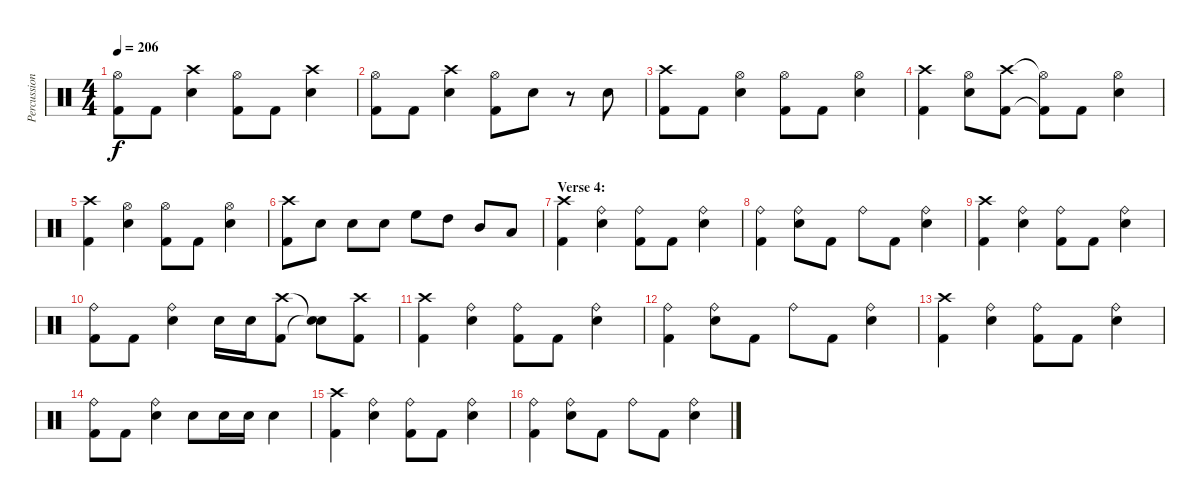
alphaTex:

\track ("Percussion" "Percussion") {instrument percussion}
\staff {score}
\articulation defaults
\ts (4 4)
\tempo 206
\clef neutral
\ks c
("Hi-Hat (open)" "Kick (hit) 2").8{dy f} "Kick (hit) 2".8 ("Crash high (hit)" "Snare (hit) 2").4 ("Hi-Hat (open)" "Kick (hit) 2").8 "Kick (hit) 2".8 ("Crash high (hit)" "Snare (hit) 2").4 |
("Hi-Hat (open)" "Kick (hit) 2").8 "Kick (hit) 2".8 ("Crash high (hit)" "Snare (hit) 2").4 ("Hi-Hat (open)" "Kick (hit) 2").8 "Snare (hit) 2".8 r.8 "Snare (hit) 2".8 |
("Crash high (hit)" "Kick (hit) 2").8 "Kick (hit) 2".8 ("Hi-Hat (open)" "Snare (hit) 2").4 ("Hi-Hat (open)" "Kick (hit) 2").8 "Kick (hit) 2".8 ("Hi-Hat (open)" "Snare (hit) 2").4 |
("Crash high (hit)" "Kick (hit) 2").4 ("Hi-Hat (open)" "Snare (hit) 2").8 ("Crash high (hit)" "Kick (hit) 2").8 ("Hi-Hat (open)"{t} "Kick (hit) 2"{t}).8 "Kick (hit) 2".8 ("Hi-Hat (open)" "Snare (hit) 2").4 |
("Crash high (hit)" "Kick (hit) 2").4 ("Hi-Hat (open)" "Snare (hit) 2").4 ("Hi-Hat (open)" "Kick (hit) 2").8 "Kick (hit) 2".8 ("Hi-Hat (open)" "Snare (hit) 2").4 |
("Crash high (hit)" "Kick (hit) 2").8 "Snare (hit) 2".8 "Snare (hit) 2".8 "Snare (hit) 2".8 "High Floor Tom (hit)".8 "High Tom (hit)".8 "Mid Tom (hit)".8 "Low Tom (hit)".8 |
\section ("" "Verse 4:")
("Crash high (hit)" "Kick (hit) 2").4 ("Ride (bell)" "Snare (hit) 2").4 ("Ride (bell)" "Kick (hit) 2").8 "Kick (hit) 2".8 ("Ride (bell)" "Snare (hit) 2").4 |
("Ride (bell)" "Kick (hit) 2").4 ("Ride (bell)" "Snare (hit) 2").8 "Kick (hit) 2".8 "Ride (bell)".8 "Kick (hit) 2".8 ("Ride (bell)" "Snare (hit) 2").4 |
("Crash high (hit)" "Kick (hit) 2").4 ("Ride (bell)" "Snare (hit) 2").4 ("Ride (bell)" "Kick (hit) 2").8 "Kick (hit) 2".8 ("Ride (bell)" "Snare (hit) 2").4 |
("Ride (bell)" "Kick (hit) 2").8 "Kick (hit) 2".8 ("Ride (bell)" "Snare (hit) 2").4 "Snare (hit) 2".16 "Snare (hit) 2".16 ("Crash high (hit)" "Kick (hit) 2").8 ("Snare (hit)"{t} "Snare (hit)"{t}).8 ("Crash high (hit)" "Kick (hit) 2").8 |
("Crash high (hit)" "Kick (hit) 2").4 ("Ride (bell)" "Snare (hit) 2").4 ("Ride (bell)" "Kick (hit) 2").8 "Kick (hit) 2".8 ("Ride (bell)" "Snare (hit) 2").4 |
("Ride (bell)" "Kick (hit) 2").4 ("Ride (bell)" "Snare (hit) 2").8 "Kick (hit) 2".8 "Ride (bell)".8 "Kick (hit) 2".8 ("Ride (bell)" "Snare (hit) 2").4 |
("Crash high (hit)" "Kick (hit) 2").4 ("Ride (bell)" "Snare (hit) 2").4 ("Ride (bell)" "Kick (hit) 2").8 "Kick (hit) 2".8 ("Ride (bell)" "Snare (hit) 2").4 |
("Ride (bell)" "Kick (hit) 2").8 "Kick (hit) 2".8 ("Ride (bell)" "Snare (hit) 2").4 "Snare (hit) 2".8 "Snare (hit) 2".16 "Snare (hit) 2".16 "Snare (hit) 2".4 |
("Crash high (hit)" "Kick (hit) 2").4 ("Ride (bell)" "Snare (hit) 2").4 ("Ride (bell)" "Kick (hit) 2").8 "Kick (hit) 2".8 ("Ride (bell)" "Snare (hit) 2").4 |
("Ride (bell)" "Kick (hit) 2").4 ("Ride (bell)" "Snare (hit) 2").8 "Kick (hit) 2".8 "Ride (bell)".8 "Kick (hit) 2".8 ("Ride (bell)" "Snare (hit) 2").4
